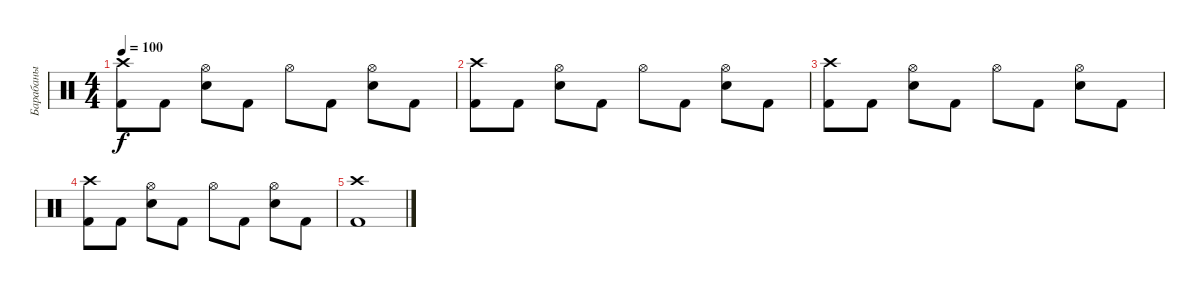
\track ("Барабаны" "Барабаны") {instrument percussion}
\staff {score}
\articulation defaults
\ts (4 4)
\tempo 100
\clef neutral
\ks c
("Crash high (hit)" "Kick (hit) 2").8{dy f} "Kick (hit) 2".8 ("Hi-Hat (open)" "Electric Snare (hit)").8 "Kick (hit) 2".8 "Hi-Hat (open)".8 "Kick (hit) 2".8 ("Hi-Hat (open)" "Electric Snare (hit)").8 "Kick (hit) 2".8 |
("Crash high (hit)" "Kick (hit) 2").8 "Kick (hit) 2".8 ("Hi-Hat (open)" "Electric Snare (hit)").8 "Kick (hit) 2".8 "Hi-Hat (open)".8 "Kick (hit) 2".8 ("Hi-Hat (open)" "Electric Snare (hit)").8 "Kick (hit) 2".8 |
("Crash high (hit)" "Kick (hit) 2").8 "Kick (hit) 2".8 ("Hi-Hat (open)" "Electric Snare (hit)").8 "Kick (hit) 2".8 "Hi-Hat (open)".8 "Kick (hit) 2".8 ("Hi-Hat (open)" "Electric Snare (hit)").8 "Kick (hit) 2".8 |
("Crash high (hit)" "Kick (hit) 2").8 "Kick (hit) 2".8 ("Hi-Hat (open)" "Electric Snare (hit)").8 "Kick (hit) 2".8 "Hi-Hat (open)".8 "Kick (hit) 2".8 ("Hi-Hat (open)" "Electric Snare (hit)").8 "Kick (hit) 2".8 |
("Crash high (hit)" "Kick (hit) 2").1
